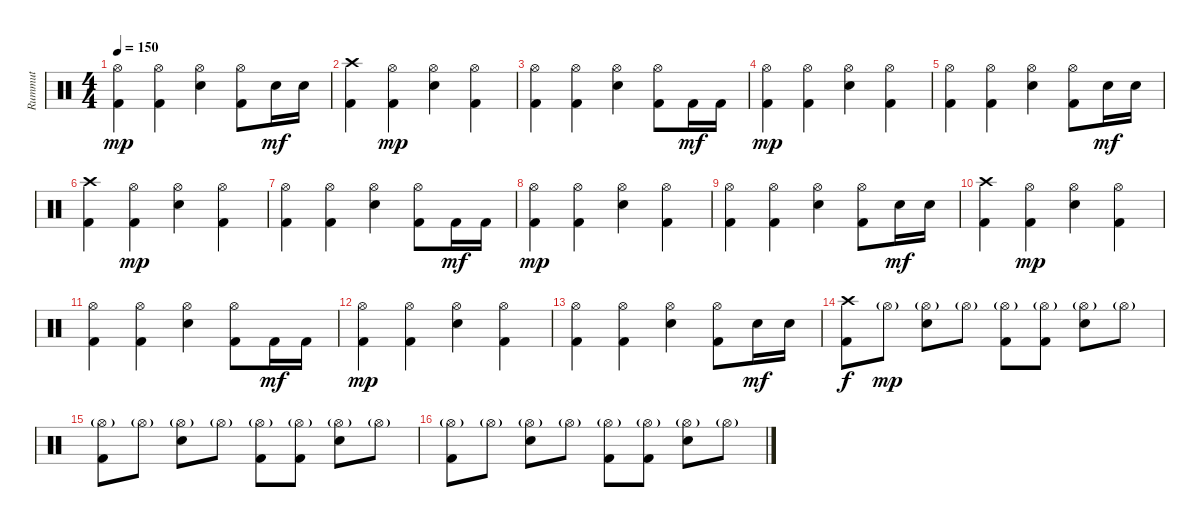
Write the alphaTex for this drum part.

\track ("Rummut" "Rummut") {instrument percussion bank 69}
\staff {score}
\articulation defaults
\ts (4 4)
\tempo 150
\clef neutral
\ks c
("Hi-Hat (open)" "Kick (hit) 2").4{dy mp} ("Hi-Hat (open)" "Kick (hit) 2").4 ("Hi-Hat (open)" "Snare (hit) 2").4 ("Hi-Hat (open)" "Kick (hit) 2").8 "Snare (hit) 2".16{dy mf} "Snare (hit) 2".16 |
("Crash high (hit)" "Kick (hit) 2").4 ("Hi-Hat (open)" "Kick (hit) 2").4{dy mp} ("Hi-Hat (open)" "Snare (hit) 2").4 ("Hi-Hat (open)" "Kick (hit) 2").4 |
("Hi-Hat (open)" "Kick (hit) 2").4 ("Hi-Hat (open)" "Kick (hit) 2").4 ("Hi-Hat (open)" "Snare (hit) 2").4 ("Hi-Hat (open)" "Kick (hit) 2").8 "Kick (hit) 2".16{dy mf} "Kick (hit) 2".16 |
("Hi-Hat (open)" "Kick (hit) 2").4{dy mp} ("Hi-Hat (open)" "Kick (hit) 2").4 ("Hi-Hat (open)" "Snare (hit) 2").4 ("Hi-Hat (open)" "Kick (hit) 2").4 |
("Hi-Hat (open)" "Kick (hit) 2").4 ("Hi-Hat (open)" "Kick (hit) 2").4 ("Hi-Hat (open)" "Snare (hit) 2").4 ("Hi-Hat (open)" "Kick (hit) 2").8 "Snare (hit) 2".16{dy mf} "Snare (hit) 2".16 |
("Crash high (hit)" "Kick (hit) 2").4 ("Hi-Hat (open)" "Kick (hit) 2").4{dy mp} ("Hi-Hat (open)" "Snare (hit) 2").4 ("Hi-Hat (open)" "Kick (hit) 2").4 |
("Hi-Hat (open)" "Kick (hit) 2").4 ("Hi-Hat (open)" "Kick (hit) 2").4 ("Hi-Hat (open)" "Snare (hit) 2").4 ("Hi-Hat (open)" "Kick (hit) 2").8 "Kick (hit) 2".16{dy mf} "Kick (hit) 2".16 |
("Hi-Hat (open)" "Kick (hit) 2").4{dy mp} ("Hi-Hat (open)" "Kick (hit) 2").4 ("Hi-Hat (open)" "Snare (hit) 2").4 ("Hi-Hat (open)" "Kick (hit) 2").4 |
("Hi-Hat (open)" "Kick (hit) 2").4 ("Hi-Hat (open)" "Kick (hit) 2").4 ("Hi-Hat (open)" "Snare (hit) 2").4 ("Hi-Hat (open)" "Kick (hit) 2").8 "Snare (hit) 2".16{dy mf} "Snare (hit) 2".16 |
("Crash high (hit)" "Kick (hit) 2").4 ("Hi-Hat (open)" "Kick (hit) 2").4{dy mp} ("Hi-Hat (open)" "Snare (hit) 2").4 ("Hi-Hat (open)" "Kick (hit) 2").4 |
("Hi-Hat (open)" "Kick (hit) 2").4 ("Hi-Hat (open)" "Kick (hit) 2").4 ("Hi-Hat (open)" "Snare (hit) 2").4 ("Hi-Hat (open)" "Kick (hit) 2").8 "Kick (hit) 2".16{dy mf} "Kick (hit) 2".16 |
("Hi-Hat (open)" "Kick (hit) 2").4{dy mp} ("Hi-Hat (open)" "Kick (hit) 2").4 ("Hi-Hat (open)" "Snare (hit) 2").4 ("Hi-Hat (open)" "Kick (hit) 2").4 |
("Hi-Hat (open)" "Kick (hit) 2").4 ("Hi-Hat (open)" "Kick (hit) 2").4 ("Hi-Hat (open)" "Snare (hit) 2").4 ("Hi-Hat (open)" "Kick (hit) 2").8 "Snare (hit) 2".16{dy mf} "Snare (hit) 2".16 |
("Crash high (hit)" "Kick (hit) 2").8{dy f} "Hi-Hat (open)"{g}.8{dy mp} ("Hi-Hat (open)"{g} "Snare (hit) 2").8 "Hi-Hat (open)"{g}.8 ("Hi-Hat (open)"{g} "Kick (hit) 2").8 ("Hi-Hat (open)"{g} "Kick (hit) 2").8 ("Hi-Hat (open)"{g} "Snare (hit) 2").8 "Hi-Hat (open)"{g}.8 |
("Hi-Hat (open)"{g} "Kick (hit) 2").8 "Hi-Hat (open)"{g}.8 ("Hi-Hat (open)"{g} "Snare (hit) 2").8 "Hi-Hat (open)"{g}.8 ("Hi-Hat (open)"{g} "Kick (hit) 2").8 ("Hi-Hat (open)"{g} "Kick (hit) 2").8 ("Hi-Hat (open)"{g} "Snare (hit) 2").8 "Hi-Hat (open)"{g}.8 |
("Hi-Hat (open)"{g} "Kick (hit) 2").8 "Hi-Hat (open)"{g}.8 ("Hi-Hat (open)"{g} "Snare (hit) 2").8 "Hi-Hat (open)"{g}.8 ("Hi-Hat (open)"{g} "Kick (hit) 2").8 ("Hi-Hat (open)"{g} "Kick (hit) 2").8 ("Hi-Hat (open)"{g} "Snare (hit) 2").8 "Hi-Hat (open)"{g}.8
